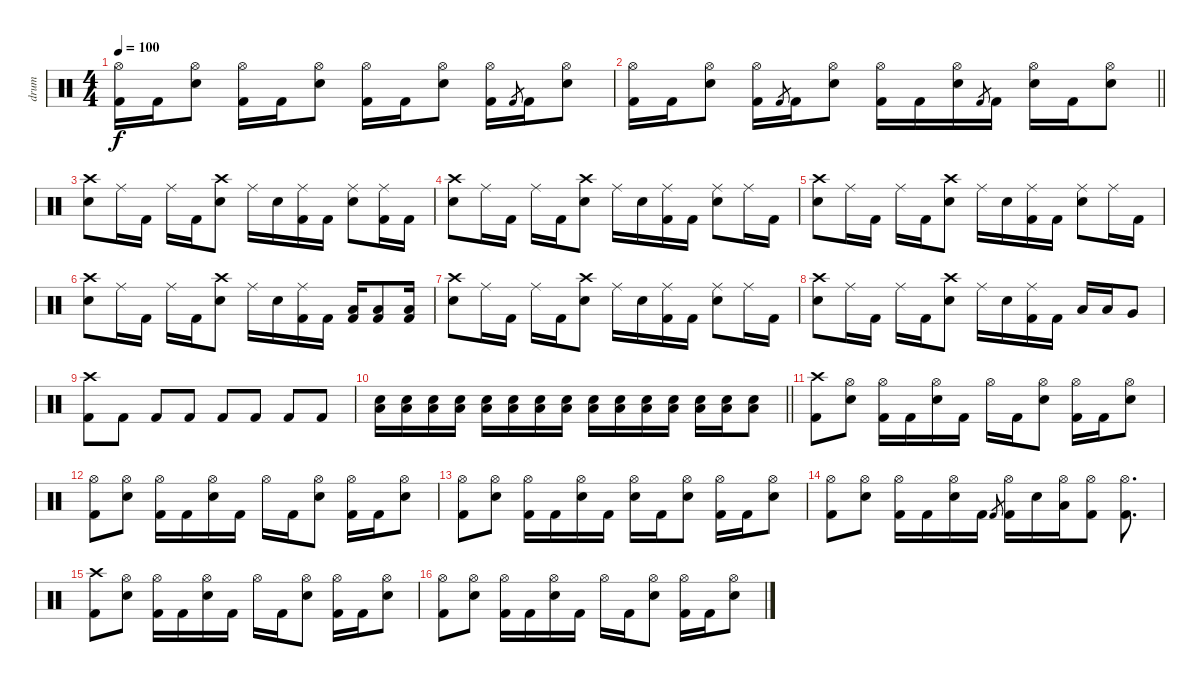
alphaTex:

\track ("drum" "drum") {instrument percussion}
\staff {score}
\articulation defaults
\ts (4 4)
\tempo 100
\clef neutral
\ks c
("Hi-Hat (open)" "Kick (hit) 2").16{dy f} "Kick (hit) 2".16 ("Hi-Hat (open)" "Electric Snare (hit)").8 ("Hi-Hat (open)" "Kick (hit) 2").16 "Kick (hit) 2".16 ("Hi-Hat (open)" "Electric Snare (hit)").8 ("Hi-Hat (open)" "Kick (hit) 2").16 "Kick (hit) 2".16 ("Hi-Hat (open)" "Electric Snare (hit)").8 ("Hi-Hat (open)" "Kick (hit) 2").16 "Kick (hit) 2".8{gr} "Kick (hit) 2".16 ("Hi-Hat (open)" "Electric Snare (hit)").8 |
\barLineRight lightlight
("Hi-Hat (open)" "Kick (hit) 2").16 "Kick (hit) 2".16 ("Hi-Hat (open)" "Electric Snare (hit)").8 ("Hi-Hat (open)" "Kick (hit) 2").16 "Kick (hit) 2".8{gr} "Kick (hit) 2".16 ("Hi-Hat (open)" "Electric Snare (hit)").8 ("Hi-Hat (open)" "Kick (hit) 2").16 "Kick (hit) 2".16 ("Hi-Hat (open)" "Electric Snare (hit)").16 "Kick (hit) 2".8{gr} "Kick (hit) 2".16 ("Hi-Hat (open)" "Electric Snare (hit)").16 "Kick (hit) 2".16 ("Hi-Hat (open)" "Electric Snare (hit)").8 |
("Crash high (hit)" "Electric Snare (hit)").8 "Ride (middle)".16 "Kick (hit) 2".16 "Ride (middle)".16 "Kick (hit) 2".16 ("Crash high (hit)" "Electric Snare (hit)").8 "Ride (middle)".16 "Electric Snare (hit)".16 ("Ride (middle)" "Kick (hit) 2").16 "Kick (hit) 2".16 ("Ride (middle)" "Electric Snare (hit)").8 ("Ride (middle)" "Kick (hit) 2").16 "Kick (hit) 2".16 |
("Crash high (hit)" "Electric Snare (hit)").8 "Ride (middle)".16 "Kick (hit) 2".16 "Ride (middle)".16 "Kick (hit) 2".16 ("Crash high (hit)" "Electric Snare (hit)").8 "Ride (middle)".16 "Electric Snare (hit)".16 ("Ride (middle)" "Kick (hit) 2").16 "Kick (hit) 2".16 ("Ride (middle)" "Electric Snare (hit)").8 "Ride (middle)".16 "Kick (hit) 2".16 |
("Crash high (hit)" "Electric Snare (hit)").8 "Ride (middle)".16 "Kick (hit) 2".16 "Ride (middle)".16 "Kick (hit) 2".16 ("Crash high (hit)" "Electric Snare (hit)").8 "Ride (middle)".16 "Electric Snare (hit)".16 ("Ride (middle)" "Kick (hit) 2").16 "Kick (hit) 2".16 ("Ride (middle)" "Electric Snare (hit)").8 "Ride (middle)".16 "Kick (hit) 2".16 |
("Crash high (hit)" "Electric Snare (hit)").8 "Ride (middle)".16 "Kick (hit) 2".16 "Ride (middle)".16 "Kick (hit) 2".16 ("Crash high (hit)" "Electric Snare (hit)").8 "Ride (middle)".16 "Electric Snare (hit)".16 ("Ride (middle)" "Kick (hit) 2").16 "Kick (hit) 2".16 ("Low Floor Tom (hit)" "Kick (hit) 2").16 ("Low Floor Tom (hit)" "Kick (hit) 2").8 ("Low Floor Tom (hit)" "Kick (hit) 2").16 |
("Crash high (hit)" "Electric Snare (hit)").8 "Ride (middle)".16 "Kick (hit) 2".16 "Ride (middle)".16 "Kick (hit) 2".16 ("Crash high (hit)" "Electric Snare (hit)").8 "Ride (middle)".16 "Electric Snare (hit)".16 ("Ride (middle)" "Kick (hit) 2").16 "Kick (hit) 2".16 ("Ride (middle)" "Electric Snare (hit)").8 "Ride (middle)".16 "Kick (hit) 2".16 |
("Crash high (hit)" "Electric Snare (hit)").8 "Ride (middle)".16 "Kick (hit) 2".16 "Ride (middle)".16 "Kick (hit) 2".16 ("Crash high (hit)" "Electric Snare (hit)").8 "Ride (middle)".16 "Electric Snare (hit)".16 ("Ride (middle)" "Kick (hit) 2").16 "Kick (hit) 2".16 "Low Tom (hit)".16 "Low Tom (hit)".16 "Very Low Tom (hit)".8 |
("Crash high (hit)" "Kick (hit) 2").8 "Kick (hit) 2".8 "Kick (hit) 2".8 "Kick (hit) 2".8 "Kick (hit) 2".8 "Kick (hit) 2".8 "Kick (hit) 2".8 "Kick (hit) 2".8 |
\barLineRight lightlight
("Low Floor Tom (hit)" "Electric Snare (hit)").16 ("Low Floor Tom (hit)" "Electric Snare (hit)").16 ("Low Floor Tom (hit)" "Electric Snare (hit)").16 ("Low Floor Tom (hit)" "Electric Snare (hit)").16 ("Low Floor Tom (hit)" "Electric Snare (hit)").16 ("Low Floor Tom (hit)" "Electric Snare (hit)").16 ("Low Floor Tom (hit)" "Electric Snare (hit)").16 ("Low Floor Tom (hit)" "Electric Snare (hit)").16 ("Low Floor Tom (hit)" "Electric Snare (hit)").16 ("Low Floor Tom (hit)" "Electric Snare (hit)").16 ("Low Floor Tom (hit)" "Electric Snare (hit)").16 ("Low Floor Tom (hit)" "Electric Snare (hit)").16 ("Low Floor Tom (hit)" "Electric Snare (hit)").16 ("Low Floor Tom (hit)" "Electric Snare (hit)").16 ("Low Floor Tom (hit)" "Electric Snare (hit)").8 |
("Crash high (hit)" "Kick (hit) 2").8 ("Hi-Hat (open)" "Electric Snare (hit)").8 ("Hi-Hat (open)" "Kick (hit) 2").16 "Kick (hit) 2".16 ("Hi-Hat (open)" "Electric Snare (hit)").16 "Kick (hit) 2".16 "Hi-Hat (open)".16 "Kick (hit) 2".16 ("Hi-Hat (open)" "Electric Snare (hit)").8 ("Hi-Hat (open)" "Kick (hit) 2").16 "Kick (hit) 2".16 ("Hi-Hat (open)" "Electric Snare (hit)").8 |
("Hi-Hat (open)" "Kick (hit) 2").8 ("Hi-Hat (open)" "Electric Snare (hit)").8 ("Hi-Hat (open)" "Kick (hit) 2").16 "Kick (hit) 2".16 ("Hi-Hat (open)" "Electric Snare (hit)").16 "Kick (hit) 2".16 "Hi-Hat (open)".16 "Kick (hit) 2".16 ("Hi-Hat (open)" "Electric Snare (hit)").8 ("Hi-Hat (open)" "Kick (hit) 2").16 "Kick (hit) 2".16 ("Hi-Hat (open)" "Electric Snare (hit)").8 |
("Hi-Hat (open)" "Kick (hit) 2").8 ("Hi-Hat (open)" "Electric Snare (hit)").8 ("Hi-Hat (open)" "Kick (hit) 2").16 "Kick (hit) 2".16 ("Hi-Hat (open)" "Electric Snare (hit)").16 "Kick (hit) 2".16 ("Hi-Hat (open)" "Electric Snare (hit)").16 "Kick (hit) 2".16 ("Hi-Hat (open)" "Electric Snare (hit)").8 ("Hi-Hat (open)" "Kick (hit) 2").16 "Kick (hit) 2".16 ("Hi-Hat (open)" "Electric Snare (hit)").8 |
("Hi-Hat (open)" "Kick (hit) 2").8 ("Hi-Hat (open)" "Electric Snare (hit)").8 ("Hi-Hat (open)" "Kick (hit) 2").16 "Kick (hit) 2".16 ("Hi-Hat (open)" "Electric Snare (hit)").16 "Kick (hit) 2".16 "Kick (hit) 2".8{gr} ("Hi-Hat (open)" "Kick (hit) 2").16 "Electric Snare (hit)".16 ("Hi-Hat (open)" "Low Floor Tom (hit)").16 ("Hi-Hat (open)" "Kick (hit) 2").8 ("Hi-Hat (open)" "Kick (hit) 2").8{d} |
("Crash high (hit)" "Kick (hit) 2").8 ("Hi-Hat (open)" "Electric Snare (hit)").8 ("Hi-Hat (open)" "Kick (hit) 2").16 "Kick (hit) 2".16 ("Hi-Hat (open)" "Electric Snare (hit)").16 "Kick (hit) 2".16 "Hi-Hat (open)".16 "Kick (hit) 2".16 ("Hi-Hat (open)" "Electric Snare (hit)").8 ("Hi-Hat (open)" "Kick (hit) 2").16 "Kick (hit) 2".16 ("Hi-Hat (open)" "Electric Snare (hit)").8 |
("Hi-Hat (open)" "Kick (hit) 2").8 ("Hi-Hat (open)" "Electric Snare (hit)").8 ("Hi-Hat (open)" "Kick (hit) 2").16 "Kick (hit) 2".16 ("Hi-Hat (open)" "Electric Snare (hit)").16 "Kick (hit) 2".16 "Hi-Hat (open)".16 "Kick (hit) 2".16 ("Hi-Hat (open)" "Electric Snare (hit)").8 ("Hi-Hat (open)" "Kick (hit) 2").16 "Kick (hit) 2".16 ("Hi-Hat (open)" "Electric Snare (hit)").8
